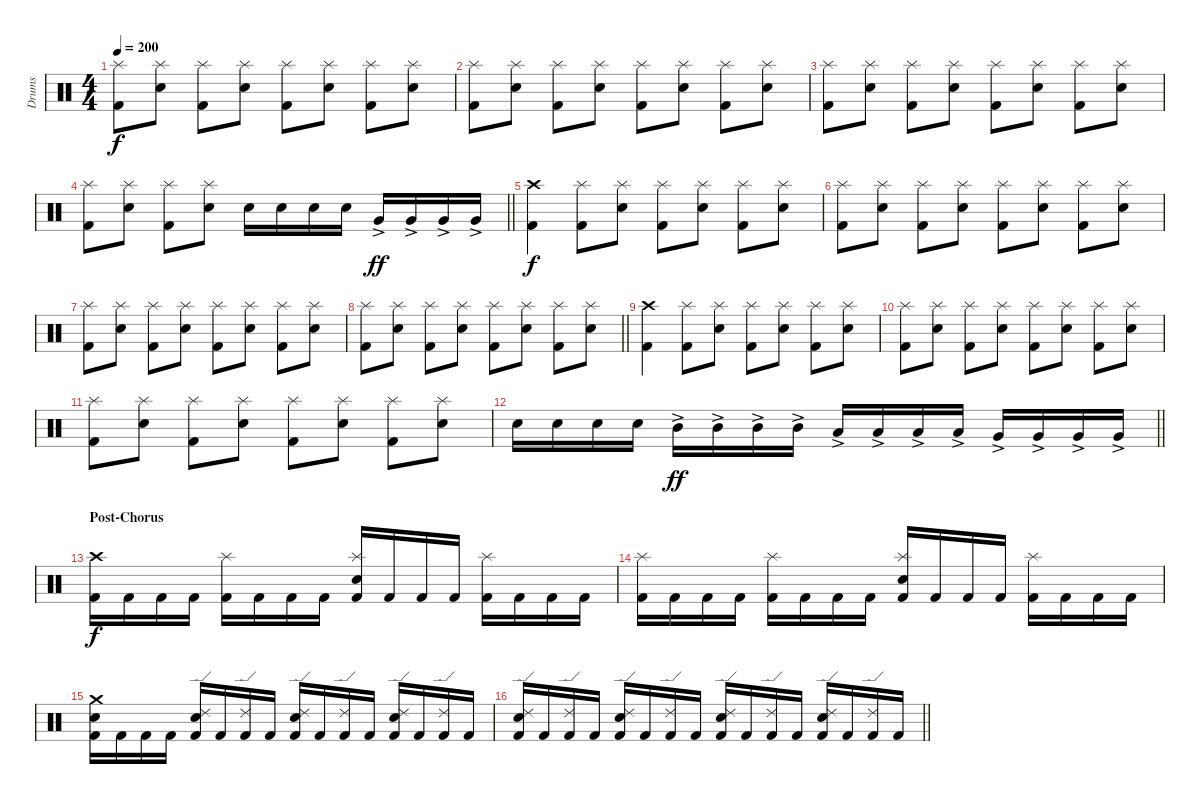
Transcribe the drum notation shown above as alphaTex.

\track ("Drums" "Drums") {instrument percussion}
\staff {score}
\articulation defaults
\ts (4 4)
\section ("" "")
\tempo 200
\clef neutral
\ks c
("Kick (hit) 2" "Splash (hit)").8{dy f} ("Snare (hit) 2" "Splash (hit)").8 ("Kick (hit) 2" "Splash (hit)").8 ("Snare (hit) 2" "Splash (hit)").8 ("Kick (hit) 2" "Splash (hit)").8 ("Snare (hit) 2" "Splash (hit)").8 ("Kick (hit) 2" "Splash (hit)").8 ("Snare (hit) 2" "Splash (hit)").8 |
("Kick (hit) 2" "Splash (hit)").8 ("Snare (hit) 2" "Splash (hit)").8 ("Kick (hit) 2" "Splash (hit)").8 ("Snare (hit) 2" "Splash (hit)").8 ("Kick (hit) 2" "Splash (hit)").8 ("Snare (hit) 2" "Splash (hit)").8 ("Kick (hit) 2" "Splash (hit)").8 ("Snare (hit) 2" "Splash (hit)").8 |
("Kick (hit) 2" "Splash (hit)").8 ("Snare (hit) 2" "Splash (hit)").8 ("Kick (hit) 2" "Splash (hit)").8 ("Snare (hit) 2" "Splash (hit)").8 ("Kick (hit) 2" "Splash (hit)").8 ("Snare (hit) 2" "Splash (hit)").8 ("Kick (hit) 2" "Splash (hit)").8 ("Snare (hit) 2" "Splash (hit)").8 |
\barLineRight lightlight
("Kick (hit) 2" "Splash (hit)").8 ("Snare (hit) 2" "Splash (hit)").8 ("Kick (hit) 2" "Splash (hit)").8 ("Snare (hit) 2" "Splash (hit)").8 "Snare (hit) 2".16 "Snare (hit) 2".16 "Snare (hit) 2".16 "Snare (hit) 2".16 "Very Low Tom (hit)"{ac}.16{dy ff} "Very Low Tom (hit)"{ac}.16 "Very Low Tom (hit)"{ac}.16 "Very Low Tom (hit)"{ac}.16 |
\section ("" "")
("Kick (hit) 2" "Crash high (hit)").4{dy f} ("Kick (hit) 2" "Splash (hit)").8 ("Snare (hit) 2" "Splash (hit)").8 ("Kick (hit) 2" "Splash (hit)").8 ("Snare (hit) 2" "Splash (hit)").8 ("Kick (hit) 2" "Splash (hit)").8 ("Snare (hit) 2" "Splash (hit)").8 |
("Kick (hit) 2" "Splash (hit)").8 ("Snare (hit) 2" "Splash (hit)").8 ("Kick (hit) 2" "Splash (hit)").8 ("Snare (hit) 2" "Splash (hit)").8 ("Kick (hit) 2" "Splash (hit)").8 ("Snare (hit) 2" "Splash (hit)").8 ("Kick (hit) 2" "Splash (hit)").8 ("Snare (hit) 2" "Splash (hit)").8 |
("Kick (hit) 2" "Splash (hit)").8 ("Snare (hit) 2" "Splash (hit)").8 ("Kick (hit) 2" "Splash (hit)").8 ("Snare (hit) 2" "Splash (hit)").8 ("Kick (hit) 2" "Splash (hit)").8 ("Snare (hit) 2" "Splash (hit)").8 ("Kick (hit) 2" "Splash (hit)").8 ("Snare (hit) 2" "Splash (hit)").8 |
\barLineRight lightlight
("Kick (hit) 2" "Splash (hit)").8 ("Snare (hit) 2" "Splash (hit)").8 ("Kick (hit) 2" "Splash (hit)").8 ("Snare (hit) 2" "Splash (hit)").8 ("Kick (hit) 2" "Splash (hit)").8 ("Snare (hit) 2" "Splash (hit)").8 ("Kick (hit) 2" "Splash (hit)").8 ("Snare (hit) 2" "Splash (hit)").8 |
\section ("" "")
("Kick (hit) 2" "Crash high (hit)").4 ("Kick (hit) 2" "Splash (hit)").8 ("Snare (hit) 2" "Splash (hit)").8 ("Kick (hit) 2" "Splash (hit)").8 ("Snare (hit) 2" "Splash (hit)").8 ("Kick (hit) 2" "Splash (hit)").8 ("Snare (hit) 2" "Splash (hit)").8 |
("Kick (hit) 2" "Splash (hit)").8 ("Snare (hit) 2" "Splash (hit)").8 ("Kick (hit) 2" "Splash (hit)").8 ("Snare (hit) 2" "Splash (hit)").8 ("Kick (hit) 2" "Splash (hit)").8 ("Snare (hit) 2" "Splash (hit)").8 ("Kick (hit) 2" "Splash (hit)").8 ("Snare (hit) 2" "Splash (hit)").8 |
("Kick (hit) 2" "Splash (hit)").8 ("Snare (hit) 2" "Splash (hit)").8 ("Kick (hit) 2" "Splash (hit)").8 ("Snare (hit) 2" "Splash (hit)").8 ("Kick (hit) 2" "Splash (hit)").8 ("Snare (hit) 2" "Splash (hit)").8 ("Kick (hit) 2" "Splash (hit)").8 ("Snare (hit) 2" "Splash (hit)").8 |
\barLineRight lightlight "Snare (hit) 2".16 "Snare (hit) 2".16 "Snare (hit) 2".16 "Snare (hit) 2".16 "Mid Tom (hit)"{ac}.16{dy ff} "Mid Tom (hit)"{ac}.16 "Mid Tom (hit)"{ac}.16 "Mid Tom (hit)"{ac}.16 "Low Tom (hit)"{ac}.16 "Low Tom (hit)"{ac}.16 "Low Tom (hit)"{ac}.16 "Low Tom (hit)"{ac}.16 "Very Low Tom (hit)"{ac}.16 "Very Low Tom (hit)"{ac}.16 "Very Low Tom (hit)"{ac}.16 "Very Low Tom (hit)"{ac}.16
|
\section ("" "Post-Chorus")
("Kick (hit) 2" "Crash high (hit)").16{dy f} "Kick (hit) 2".16 "Kick (hit) 2".16 "Kick (hit) 2".16 ("Kick (hit) 2" "Splash (hit)").16 "Kick (hit) 2".16 "Kick (hit) 2".16 "Kick (hit) 2".16 ("Kick (hit) 2" "Snare (hit) 2" "Splash (hit)").16 "Kick (hit) 2".16 "Kick (hit) 2".16 "Kick (hit) 2".16 ("Kick (hit) 2" "Splash (hit)").16 "Kick (hit) 2".16 "Kick (hit) 2".16 "Kick (hit) 2".16 |
("Kick (hit) 2" "Splash (hit)").16 "Kick (hit) 2".16 "Kick (hit) 2".16 "Kick (hit) 2".16 ("Kick (hit) 2" "Splash (hit)").16 "Kick (hit) 2".16 "Kick (hit) 2".16 "Kick (hit) 2".16 ("Kick (hit) 2" "Snare (hit) 2" "Splash (hit)").16 "Kick (hit) 2".16 "Kick (hit) 2".16 "Kick (hit) 2".16 ("Kick (hit) 2" "Splash (hit)").16 "Kick (hit) 2".16 "Kick (hit) 2".16 "Kick (hit) 2".16 |
("Kick (hit) 2" "Snare (hit) 2" "Crash medium (hit)").16 "Kick (hit) 2".16 "Kick (hit) 2".16 "Kick (hit) 2".16 ("Kick (hit) 2" "Snare (hit) 2" "Ride (edge) 2").16 "Kick (hit) 2".16 ("Kick (hit) 2" "Ride (edge) 2").16 "Kick (hit) 2".16 ("Kick (hit) 2" "Snare (hit) 2" "Ride (edge) 2").16 "Kick (hit) 2".16 ("Kick (hit) 2" "Ride (edge) 2").16 "Kick (hit) 2".16 ("Kick (hit) 2" "Snare (hit) 2" "Ride (edge) 2").16 "Kick (hit) 2".16 ("Kick (hit) 2" "Ride (edge) 2").16 "Kick (hit) 2".16 |
\barLineRight lightlight
("Kick (hit) 2" "Snare (hit) 2" "Ride (edge) 2").16 "Kick (hit) 2".16 ("Kick (hit) 2" "Ride (edge) 2").16 "Kick (hit) 2".16 ("Kick (hit) 2" "Snare (hit) 2" "Ride (edge) 2").16 "Kick (hit) 2".16 ("Kick (hit) 2" "Ride (edge) 2").16 "Kick (hit) 2".16 ("Kick (hit) 2" "Snare (hit) 2" "Ride (edge) 2").16 "Kick (hit) 2".16 ("Kick (hit) 2" "Ride (edge) 2").16 "Kick (hit) 2".16 ("Kick (hit) 2" "Snare (hit) 2" "Ride (edge) 2").16 "Kick (hit) 2".16 ("Kick (hit) 2" "Ride (edge) 2").16 "Kick (hit) 2".16
